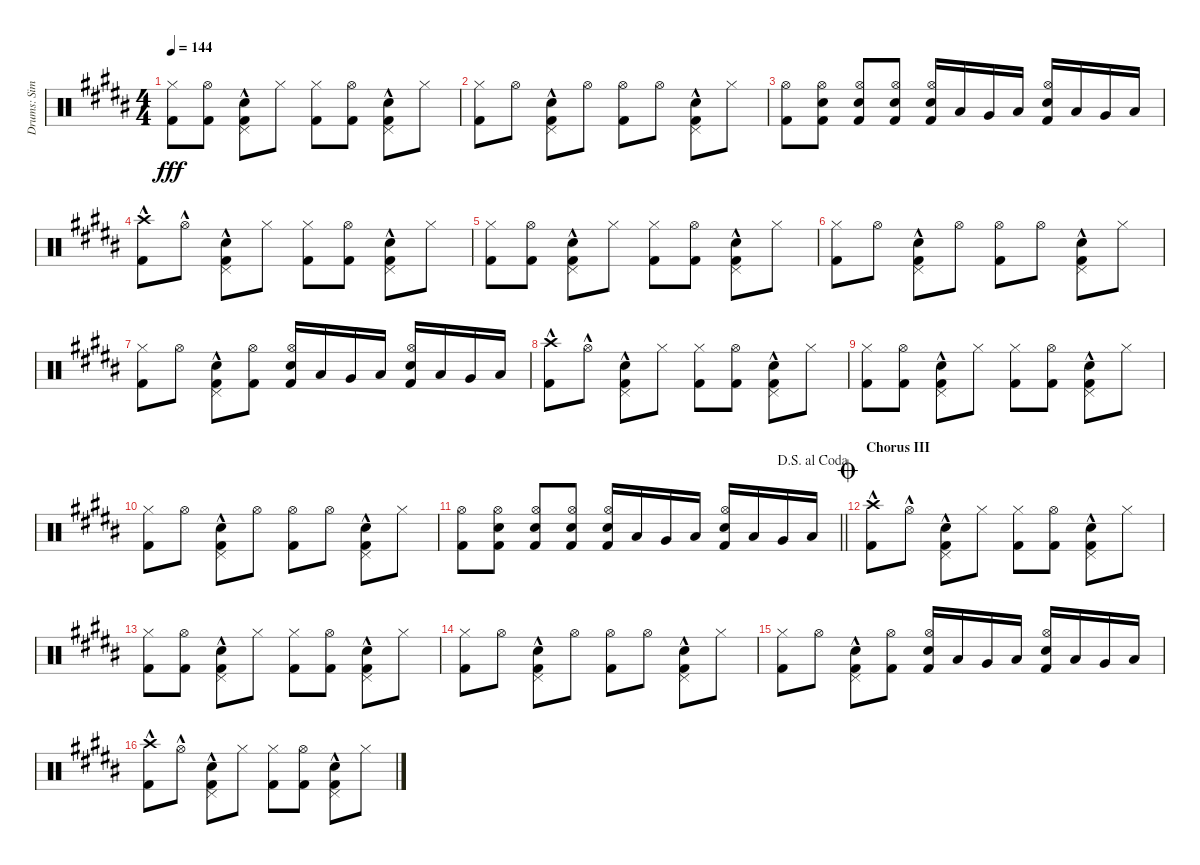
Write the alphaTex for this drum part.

\track ("Drums: Simon" "Drums: Sim") {instrument percussion}
\staff {score}
\articulation defaults
\ts (4 4)
\tempo 144
\clef neutral
\ks b
("Hi-Hat (closed)" "Kick (hit) 2").8{dy fff} ("Hi-Hat (open)" "Kick (hit) 2").8 ("Pedal Hi-Hat (hit)"{hac} "Snare (hit) 2"{hac} "Kick (hit) 2"{hac}).8 "Hi-Hat (closed)".8 ("Hi-Hat (closed)" "Kick (hit) 2").8 ("Hi-Hat (open)" "Kick (hit) 2").8 ("Pedal Hi-Hat (hit)"{hac} "Snare (hit) 2"{hac} "Kick (hit) 2"{hac}).8 "Hi-Hat (closed)".8 |
("Hi-Hat (closed)" "Kick (hit) 2").8 "Hi-Hat (open)".8 ("Pedal Hi-Hat (hit)"{hac} "Snare (hit) 2"{hac} "Kick (hit) 2"{hac}).8 "Hi-Hat (open)".8 ("Hi-Hat (open)" "Kick (hit) 2").8 "Hi-Hat (open)".8 ("Pedal Hi-Hat (hit)"{hac} "Snare (hit) 2"{hac} "Kick (hit) 2"{hac}).8 "Hi-Hat (closed)".8 |
("Hi-Hat (open)" "Kick (hit) 2").8 ("Hi-Hat (open)" "Snare (hit) 2" "Kick (hit) 2").8 ("Hi-Hat (open)" "Snare (hit) 2" "Kick (hit) 2").8 ("Hi-Hat (open)" "Snare (hit) 2" "Kick (hit) 2").8 ("Hi-Hat (open)" "Snare (hit) 2" "Kick (hit) 2").16 "Low Tom (hit)".16 "Very Low Tom (hit)".16 "Low Floor Tom (hit)".16 ("Hi-Hat (open)" "Snare (hit) 2" "Kick (hit) 2").16 "Low Tom (hit)".16 "Very Low Tom (hit)".16 "Low Floor Tom (hit)".16 |
("Crash high (hit)"{hac} "Kick (hit) 2"{hac}).8 "Hi-Hat (open)"{hac}.8 ("Pedal Hi-Hat (hit)"{hac} "Snare (hit) 2"{hac} "Kick (hit) 2"{hac}).8 "Hi-Hat (closed)".8 ("Hi-Hat (closed)" "Kick (hit) 2").8 ("Hi-Hat (open)" "Kick (hit) 2").8 ("Pedal Hi-Hat (hit)"{hac} "Snare (hit) 2"{hac} "Kick (hit) 2"{hac}).8 "Hi-Hat (closed)".8 |
("Hi-Hat (closed)" "Kick (hit) 2").8 ("Hi-Hat (open)" "Kick (hit) 2").8 ("Pedal Hi-Hat (hit)"{hac} "Snare (hit) 2"{hac} "Kick (hit) 2"{hac}).8 "Hi-Hat (closed)".8 ("Hi-Hat (closed)" "Kick (hit) 2").8 ("Hi-Hat (open)" "Kick (hit) 2").8 ("Pedal Hi-Hat (hit)"{hac} "Snare (hit) 2"{hac} "Kick (hit) 2"{hac}).8 "Hi-Hat (closed)".8 |
("Hi-Hat (closed)" "Kick (hit) 2").8 "Hi-Hat (open)".8 ("Pedal Hi-Hat (hit)"{hac} "Snare (hit) 2"{hac} "Kick (hit) 2"{hac}).8 "Hi-Hat (open)".8 ("Hi-Hat (open)" "Kick (hit) 2").8 "Hi-Hat (open)".8 ("Pedal Hi-Hat (hit)"{hac} "Snare (hit) 2"{hac} "Kick (hit) 2"{hac}).8 "Hi-Hat (closed)".8 |
("Hi-Hat (closed)" "Kick (hit) 2").8 "Hi-Hat (open)".8 ("Pedal Hi-Hat (hit)"{hac} "Snare (hit) 2"{hac} "Kick (hit) 2"{hac}).8 ("Hi-Hat (open)" "Kick (hit) 2").8 ("Hi-Hat (open)" "Snare (hit) 2" "Kick (hit) 2").16 "Low Tom (hit)".16 "Very Low Tom (hit)".16 "Low Floor Tom (hit)".16 ("Hi-Hat (open)" "Snare (hit) 2" "Kick (hit) 2").16 "Low Tom (hit)".16 "Very Low Tom (hit)".16 "Low Floor Tom (hit)".16 |
("Crash high (hit)"{hac} "Kick (hit) 2"{hac}).8 "Hi-Hat (open)"{hac}.8 ("Pedal Hi-Hat (hit)"{hac} "Snare (hit) 2"{hac} "Kick (hit) 2"{hac}).8 "Hi-Hat (closed)".8 ("Hi-Hat (closed)" "Kick (hit) 2").8 ("Hi-Hat (open)" "Kick (hit) 2").8 ("Pedal Hi-Hat (hit)"{hac} "Snare (hit) 2"{hac} "Kick (hit) 2"{hac}).8 "Hi-Hat (closed)".8 |
("Hi-Hat (closed)" "Kick (hit) 2").8 ("Hi-Hat (open)" "Kick (hit) 2").8 ("Pedal Hi-Hat (hit)"{hac} "Snare (hit) 2"{hac} "Kick (hit) 2"{hac}).8 "Hi-Hat (closed)".8 ("Hi-Hat (closed)" "Kick (hit) 2").8 ("Hi-Hat (open)" "Kick (hit) 2").8 ("Pedal Hi-Hat (hit)"{hac} "Snare (hit) 2"{hac} "Kick (hit) 2"{hac}).8 "Hi-Hat (closed)".8 |
("Hi-Hat (closed)" "Kick (hit) 2").8 "Hi-Hat (open)".8 ("Pedal Hi-Hat (hit)"{hac} "Snare (hit) 2"{hac} "Kick (hit) 2"{hac}).8 "Hi-Hat (open)".8 ("Hi-Hat (open)" "Kick (hit) 2").8 "Hi-Hat (open)".8 ("Pedal Hi-Hat (hit)"{hac} "Snare (hit) 2"{hac} "Kick (hit) 2"{hac}).8 "Hi-Hat (closed)".8 |
\jump dalsegnoalcoda
\barLineRight lightlight
("Hi-Hat (open)" "Kick (hit) 2").8 ("Hi-Hat (open)" "Snare (hit) 2" "Kick (hit) 2").8 ("Hi-Hat (open)" "Snare (hit) 2" "Kick (hit) 2").8 ("Hi-Hat (open)" "Snare (hit) 2" "Kick (hit) 2").8 ("Hi-Hat (open)" "Snare (hit) 2" "Kick (hit) 2").16 "Low Tom (hit)".16 "Very Low Tom (hit)".16 "Low Floor Tom (hit)".16 ("Hi-Hat (open)" "Snare (hit) 2" "Kick (hit) 2").16 "Low Tom (hit)".16 "Very Low Tom (hit)".16 "Low Floor Tom (hit)".16 |
\section ("" "Chorus III")
\jump coda
("Crash high (hit)"{hac} "Kick (hit) 2"{hac}).8 "Hi-Hat (open)"{hac}.8 ("Pedal Hi-Hat (hit)"{hac} "Snare (hit) 2"{hac} "Kick (hit) 2"{hac}).8 "Hi-Hat (closed)".8 ("Hi-Hat (closed)" "Kick (hit) 2").8 ("Hi-Hat (open)" "Kick (hit) 2").8 ("Pedal Hi-Hat (hit)"{hac} "Snare (hit) 2"{hac} "Kick (hit) 2"{hac}).8 "Hi-Hat (closed)".8 |
("Hi-Hat (closed)" "Kick (hit) 2").8 ("Hi-Hat (open)" "Kick (hit) 2").8 ("Pedal Hi-Hat (hit)"{hac} "Snare (hit) 2"{hac} "Kick (hit) 2"{hac}).8 "Hi-Hat (closed)".8 ("Hi-Hat (closed)" "Kick (hit) 2").8 ("Hi-Hat (open)" "Kick (hit) 2").8 ("Pedal Hi-Hat (hit)"{hac} "Snare (hit) 2"{hac} "Kick (hit) 2"{hac}).8 "Hi-Hat (closed)".8 |
("Hi-Hat (closed)" "Kick (hit) 2").8 "Hi-Hat (open)".8 ("Pedal Hi-Hat (hit)"{hac} "Snare (hit) 2"{hac} "Kick (hit) 2"{hac}).8 "Hi-Hat (open)".8 ("Hi-Hat (open)" "Kick (hit) 2").8 "Hi-Hat (open)".8 ("Pedal Hi-Hat (hit)"{hac} "Snare (hit) 2"{hac} "Kick (hit) 2"{hac}).8 "Hi-Hat (closed)".8 |
("Hi-Hat (closed)" "Kick (hit) 2").8 "Hi-Hat (open)".8 ("Pedal Hi-Hat (hit)"{hac} "Snare (hit) 2"{hac} "Kick (hit) 2"{hac}).8 ("Hi-Hat (open)" "Kick (hit) 2").8 ("Hi-Hat (open)" "Snare (hit) 2" "Kick (hit) 2").16 "Low Tom (hit)".16 "Very Low Tom (hit)".16 "Low Floor Tom (hit)".16 ("Hi-Hat (open)" "Snare (hit) 2" "Kick (hit) 2").16 "Low Tom (hit)".16 "Very Low Tom (hit)".16 "Low Floor Tom (hit)".16 |
("Crash high (hit)"{hac} "Kick (hit) 2"{hac}).8 "Hi-Hat (open)"{hac}.8 ("Pedal Hi-Hat (hit)"{hac} "Snare (hit) 2"{hac} "Kick (hit) 2"{hac}).8 "Hi-Hat (closed)".8 ("Hi-Hat (closed)" "Kick (hit) 2").8 ("Hi-Hat (open)" "Kick (hit) 2").8 ("Pedal Hi-Hat (hit)"{hac} "Snare (hit) 2"{hac} "Kick (hit) 2"{hac}).8 "Hi-Hat (closed)".8
